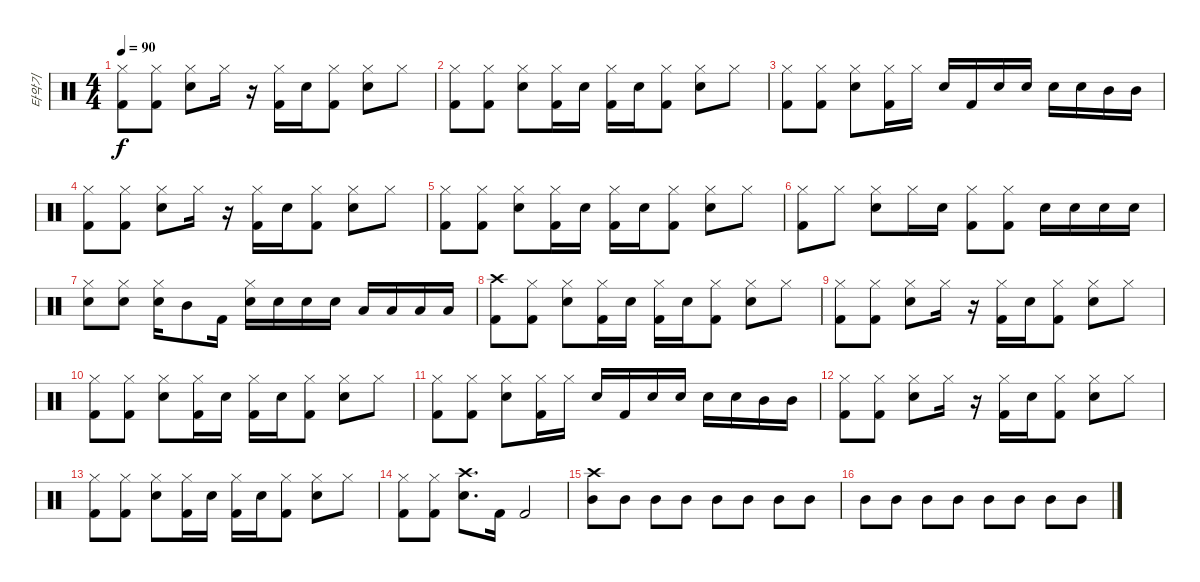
\track ("타악기" "타악기") {instrument percussion}
\staff {score}
\articulation defaults
\ts (4 4)
\tempo 90
\clef neutral
\ks c
("Hi-Hat (closed)" "Kick (hit) 2").8{dy f} ("Hi-Hat (closed)" "Kick (hit) 2").8 ("Hi-Hat (closed)" "Electric Snare (hit)").8 "Hi-Hat (closed)".16 r.16 ("Hi-Hat (closed)" "Kick (hit) 2").16 "Electric Snare (hit)".16 ("Hi-Hat (closed)" "Kick (hit) 2").8 ("Hi-Hat (closed)" "Electric Snare (hit)").8 "Hi-Hat (closed)".8 |
("Hi-Hat (closed)" "Kick (hit) 2").8 ("Hi-Hat (closed)" "Kick (hit) 2").8 ("Hi-Hat (closed)" "Electric Snare (hit)").8 ("Hi-Hat (closed)" "Kick (hit) 2").16 "Electric Snare (hit)".16 ("Hi-Hat (closed)" "Kick (hit) 2").16 "Electric Snare (hit)".16 ("Hi-Hat (closed)" "Kick (hit) 2").8 ("Hi-Hat (closed)" "Electric Snare (hit)").8 "Hi-Hat (closed)".8 |
("Kick (hit) 2" "Hi-Hat (closed)").8 ("Hi-Hat (closed)" "Kick (hit) 2").8 ("Hi-Hat (closed)" "Electric Snare (hit)").8 ("Hi-Hat (closed)" "Kick (hit) 2").16 "Hi-Hat (closed)".16 "Electric Snare (hit)".16 "Kick (hit) 2".16 "Electric Snare (hit)".16 "Electric Snare (hit)".16 "Electric Snare (hit)".16 "Electric Snare (hit)".16 "Mid Tom (hit)".16 "Mid Tom (hit)".16 |
("Hi-Hat (closed)" "Kick (hit) 2").8 ("Hi-Hat (closed)" "Kick (hit) 2").8 ("Hi-Hat (closed)" "Electric Snare (hit)").8 "Hi-Hat (closed)".16 r.16 ("Hi-Hat (closed)" "Kick (hit) 2").16 "Electric Snare (hit)".16 ("Hi-Hat (closed)" "Kick (hit) 2").8 ("Hi-Hat (closed)" "Electric Snare (hit)").8 "Hi-Hat (closed)".8 |
("Hi-Hat (closed)" "Kick (hit) 2").8 ("Hi-Hat (closed)" "Kick (hit) 2").8 ("Hi-Hat (closed)" "Electric Snare (hit)").8 ("Hi-Hat (closed)" "Kick (hit) 2").16 "Electric Snare (hit)".16 ("Hi-Hat (closed)" "Kick (hit) 2").16 "Electric Snare (hit)".16 ("Hi-Hat (closed)" "Kick (hit) 2").8 ("Hi-Hat (closed)" "Electric Snare (hit)").8 "Hi-Hat (closed)".8 |
("Kick (hit) 2" "Hi-Hat (closed)").8 "Hi-Hat (closed)".8 ("Electric Snare (hit)" "Hi-Hat (closed)").8 "Hi-Hat (closed)".16 "Electric Snare (hit)".16 ("Kick (hit) 2" "Hi-Hat (closed)").8 ("Kick (hit) 2" "Hi-Hat (closed)").8 "Electric Snare (hit)".16 "Electric Snare (hit)".16 "Electric Snare (hit)".16 "Electric Snare (hit)".16 |
("Electric Snare (hit)" "Hi-Hat (closed)").8 ("Electric Snare (hit)" "Hi-Hat (closed)").8 ("Electric Snare (hit)" "Hi-Hat (closed)").16 "Mid Tom (hit)".8 "Kick (hit) 2".16 ("Electric Snare (hit)" "Hi-Hat (closed)").16 "Electric Snare (hit)".16 "Electric Snare (hit)".16 "Electric Snare (hit)".16 "Low Tom (hit)".16 "Low Tom (hit)".16 "Low Tom (hit)".16 "Low Tom (hit)".16 |
("Crash high (hit)" "Kick (hit) 2").8 ("Hi-Hat (closed)" "Kick (hit) 2").8 ("Hi-Hat (closed)" "Electric Snare (hit)").8 ("Hi-Hat (closed)" "Kick (hit) 2").16 "Electric Snare (hit)".16 ("Hi-Hat (closed)" "Kick (hit) 2").16 "Electric Snare (hit)".16 ("Hi-Hat (closed)" "Kick (hit) 2").8 ("Hi-Hat (closed)" "Electric Snare (hit)").8 "Hi-Hat (closed)".8 |
("Hi-Hat (closed)" "Kick (hit) 2").8 ("Hi-Hat (closed)" "Kick (hit) 2").8 ("Hi-Hat (closed)" "Electric Snare (hit)").8 "Hi-Hat (closed)".16 r.16 ("Hi-Hat (closed)" "Kick (hit) 2").16 "Electric Snare (hit)".16 ("Hi-Hat (closed)" "Kick (hit) 2").8 ("Hi-Hat (closed)" "Electric Snare (hit)").8 "Hi-Hat (closed)".8 |
("Hi-Hat (closed)" "Kick (hit) 2").8 ("Hi-Hat (closed)" "Kick (hit) 2").8 ("Hi-Hat (closed)" "Electric Snare (hit)").8 ("Hi-Hat (closed)" "Kick (hit) 2").16 "Electric Snare (hit)".16 ("Hi-Hat (closed)" "Kick (hit) 2").16 "Electric Snare (hit)".16 ("Hi-Hat (closed)" "Kick (hit) 2").8 ("Hi-Hat (closed)" "Electric Snare (hit)").8 "Hi-Hat (closed)".8 |
("Kick (hit) 2" "Hi-Hat (closed)").8 ("Hi-Hat (closed)" "Kick (hit) 2").8 ("Hi-Hat (closed)" "Electric Snare (hit)").8 ("Hi-Hat (closed)" "Kick (hit) 2").16 "Hi-Hat (closed)".16 "Electric Snare (hit)".16 "Kick (hit) 2".16 "Electric Snare (hit)".16 "Electric Snare (hit)".16 "Electric Snare (hit)".16 "Electric Snare (hit)".16 "Mid Tom (hit)".16 "Mid Tom (hit)".16 |
("Hi-Hat (closed)" "Kick (hit) 2").8 ("Hi-Hat (closed)" "Kick (hit) 2").8 ("Hi-Hat (closed)" "Electric Snare (hit)").8 "Hi-Hat (closed)".16 r.16 ("Hi-Hat (closed)" "Kick (hit) 2").16 "Electric Snare (hit)".16 ("Hi-Hat (closed)" "Kick (hit) 2").8 ("Hi-Hat (closed)" "Electric Snare (hit)").8 "Hi-Hat (closed)".8 |
("Hi-Hat (closed)" "Kick (hit) 2").8 ("Hi-Hat (closed)" "Kick (hit) 2").8 ("Hi-Hat (closed)" "Electric Snare (hit)").8 ("Hi-Hat (closed)" "Kick (hit) 2").16 "Electric Snare (hit)".16 ("Hi-Hat (closed)" "Kick (hit) 2").16 "Electric Snare (hit)".16 ("Hi-Hat (closed)" "Kick (hit) 2").8 ("Hi-Hat (closed)" "Electric Snare (hit)").8 "Hi-Hat (closed)".8 |
("Hi-Hat (closed)" "Kick (hit) 2").8 ("Hi-Hat (closed)" "Kick (hit) 2").8 ("Electric Snare (hit)" "Crash high (hit)").8{d} "Kick (hit) 2".16 "Kick (hit) 2".2 |
("Crash high (hit)" "Mid Tom (hit)").8 "Mid Tom (hit)".8 "Mid Tom (hit)".8 "Mid Tom (hit)".8 "Mid Tom (hit)".8 "Mid Tom (hit)".8 "Mid Tom (hit)".8 "Mid Tom (hit)".8 |
"Mid Tom (hit)".8 "Mid Tom (hit)".8 "Mid Tom (hit)".8 "Mid Tom (hit)".8 "Mid Tom (hit)".8 "Mid Tom (hit)".8 "Mid Tom (hit)".8 "Mid Tom (hit)".8
